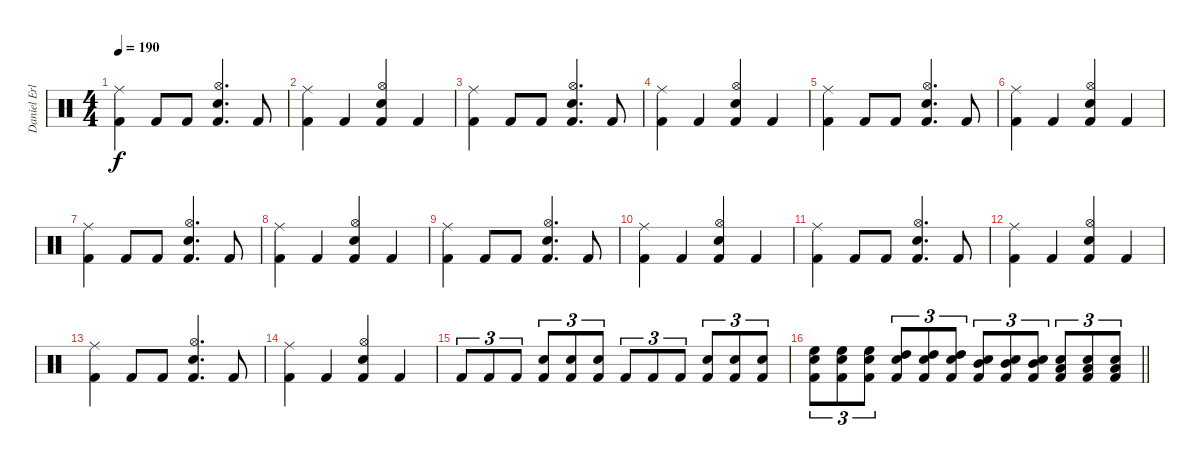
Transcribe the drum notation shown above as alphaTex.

\track ("Daniel Erlandsson" "Daniel Erl") {instrument percussion}
\staff {score}
\articulation defaults
\ts (4 4)
\tempo 190
\clef neutral
\ks c
("Ride (middle)" "Kick (hit) 2").4{dy f} "Kick (hit) 2".8 "Kick (hit) 2".8 ("Hi-Hat (open)" "Electric Snare (hit)" "Kick (hit) 2").4{d} "Kick (hit) 2".8 |
("Ride (middle)" "Kick (hit) 2").4 "Kick (hit) 2".4 ("Hi-Hat (open)" "Electric Snare (hit)" "Kick (hit) 2").4 "Kick (hit) 2".4 |
("Ride (middle)" "Kick (hit) 2").4 "Kick (hit) 2".8 "Kick (hit) 2".8 ("Hi-Hat (open)" "Electric Snare (hit)" "Kick (hit) 2").4{d} "Kick (hit) 2".8 |
("Ride (middle)" "Kick (hit) 2").4 "Kick (hit) 2".4 ("Hi-Hat (open)" "Electric Snare (hit)" "Kick (hit) 2").4 "Kick (hit) 2".4 |
("Ride (middle)" "Kick (hit) 2").4 "Kick (hit) 2".8 "Kick (hit) 2".8 ("Hi-Hat (open)" "Electric Snare (hit)" "Kick (hit) 2").4{d} "Kick (hit) 2".8 |
("Ride (middle)" "Kick (hit) 2").4 "Kick (hit) 2".4 ("Hi-Hat (open)" "Electric Snare (hit)" "Kick (hit) 2").4 "Kick (hit) 2".4 |
("Ride (middle)" "Kick (hit) 2").4 "Kick (hit) 2".8 "Kick (hit) 2".8 ("Hi-Hat (open)" "Electric Snare (hit)" "Kick (hit) 2").4{d} "Kick (hit) 2".8 |
("Ride (middle)" "Kick (hit) 2").4 "Kick (hit) 2".4 ("Hi-Hat (open)" "Electric Snare (hit)" "Kick (hit) 2").4 "Kick (hit) 2".4 |
("Ride (middle)" "Kick (hit) 2").4 "Kick (hit) 2".8 "Kick (hit) 2".8 ("Hi-Hat (open)" "Electric Snare (hit)" "Kick (hit) 2").4{d} "Kick (hit) 2".8 |
("Ride (middle)" "Kick (hit) 2").4 "Kick (hit) 2".4 ("Hi-Hat (open)" "Electric Snare (hit)" "Kick (hit) 2").4 "Kick (hit) 2".4 |
("Ride (middle)" "Kick (hit) 2").4 "Kick (hit) 2".8 "Kick (hit) 2".8 ("Hi-Hat (open)" "Electric Snare (hit)" "Kick (hit) 2").4{d} "Kick (hit) 2".8 |
("Ride (middle)" "Kick (hit) 2").4 "Kick (hit) 2".4 ("Hi-Hat (open)" "Electric Snare (hit)" "Kick (hit) 2").4 "Kick (hit) 2".4 |
("Ride (middle)" "Kick (hit) 2").4 "Kick (hit) 2".8 "Kick (hit) 2".8 ("Hi-Hat (open)" "Electric Snare (hit)" "Kick (hit) 2").4{d} "Kick (hit) 2".8 |
("Ride (middle)" "Kick (hit) 2").4 "Kick (hit) 2".4 ("Hi-Hat (open)" "Electric Snare (hit)" "Kick (hit) 2").4 "Kick (hit) 2".4 |
"Kick (hit) 2".8{tu (3 2)} "Kick (hit) 2".8{tu (3 2)} "Kick (hit) 2".8{tu (3 2)} ("Electric Snare (hit)" "Kick (hit) 2").8{tu (3 2)} ("Electric Snare (hit)" "Kick (hit) 2").8{tu (3 2)} ("Electric Snare (hit)" "Kick (hit) 2").8{tu (3 2)} "Kick (hit) 2".8{tu (3 2)} "Kick (hit) 2".8{tu (3 2)} "Kick (hit) 2".8{tu (3 2)} ("Electric Snare (hit)" "Kick (hit) 2").8{tu (3 2)} ("Electric Snare (hit)" "Kick (hit) 2").8{tu (3 2)} ("Electric Snare (hit)" "Kick (hit) 2").8{tu (3 2)} |
\barLineRight lightlight
("High Floor Tom (hit)" "Electric Snare (hit)" "Kick (hit) 2").8{tu (3 2)} ("High Floor Tom (hit)" "Electric Snare (hit)" "Kick (hit) 2").8{tu (3 2)} ("High Floor Tom (hit)" "Electric Snare (hit)" "Kick (hit) 2").8{tu (3 2)} ("High Tom (hit)" "Electric Snare (hit)" "Kick (hit) 2").8{tu (3 2)} ("High Tom (hit)" "Electric Snare (hit)" "Kick (hit) 2").8{tu (3 2)} ("High Tom (hit)" "Electric Snare (hit)" "Kick (hit) 2").8{tu (3 2)} ("Mid Tom (hit)" "Electric Snare (hit)" "Kick (hit) 2").8{tu (3 2)} ("Mid Tom (hit)" "Electric Snare (hit)" "Kick (hit) 2").8{tu (3 2)} ("Mid Tom (hit)" "Electric Snare (hit)" "Kick (hit) 2").8{tu (3 2)} ("Low Tom (hit)" "Electric Snare (hit)" "Kick (hit) 2").8{tu (3 2)} ("Low Tom (hit)" "Electric Snare (hit)" "Kick (hit) 2").8{tu (3 2)} ("Low Tom (hit)" "Electric Snare (hit)" "Kick (hit) 2").8{tu (3 2)}
